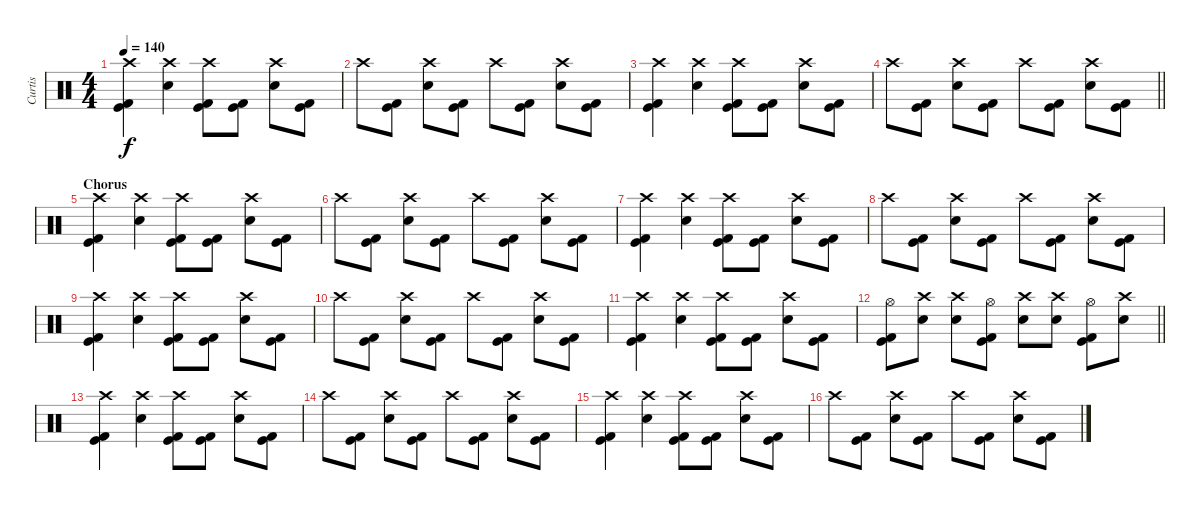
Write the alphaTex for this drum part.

\track ("Curtis" "Curtis") {instrument percussion}
\staff {score}
\articulation defaults
\ts (4 4)
\tempo 140
\clef neutral
\ks c
("Crash high (hit)" "Kick (hit) 2" "Kick (hit)").4{dy f} ("Crash high (hit)" "Electric Snare (hit)").4 ("Crash high (hit)" "Kick (hit) 2" "Kick (hit)").8 ("Kick (hit) 2" "Kick (hit)").8 ("Crash high (hit)" "Electric Snare (hit)").8 ("Kick (hit) 2" "Kick (hit)").8 |
"Crash high (hit)".8 ("Kick (hit) 2" "Kick (hit)").8 ("Crash high (hit)" "Electric Snare (hit)").8 ("Kick (hit) 2" "Kick (hit)").8 "Crash high (hit)".8 ("Kick (hit) 2" "Kick (hit)").8 ("Crash high (hit)" "Electric Snare (hit)").8 ("Kick (hit) 2" "Kick (hit)").8 |
("Crash high (hit)" "Kick (hit) 2" "Kick (hit)").4 ("Crash high (hit)" "Electric Snare (hit)").4 ("Crash high (hit)" "Kick (hit) 2" "Kick (hit)").8 ("Kick (hit) 2" "Kick (hit)").8 ("Crash high (hit)" "Electric Snare (hit)").8 ("Kick (hit) 2" "Kick (hit)").8 |
\barLineRight lightlight "Crash high (hit)".8
("Kick (hit) 2" "Kick (hit)").8 ("Crash high (hit)" "Electric Snare (hit)").8 ("Kick (hit) 2" "Kick (hit)").8 "Crash high (hit)".8 ("Kick (hit) 2" "Kick (hit)").8 ("Crash high (hit)" "Electric Snare (hit)").8 ("Kick (hit) 2" "Kick (hit)").8 |
\section ("" "Chorus")
("Crash high (hit)" "Kick (hit) 2" "Kick (hit)").4 ("Crash high (hit)" "Electric Snare (hit)").4 ("Crash high (hit)" "Kick (hit) 2" "Kick (hit)").8 ("Kick (hit) 2" "Kick (hit)").8 ("Crash high (hit)" "Electric Snare (hit)").8 ("Kick (hit) 2" "Kick (hit)").8 |
"Crash high (hit)".8 ("Kick (hit) 2" "Kick (hit)").8 ("Crash high (hit)" "Electric Snare (hit)").8 ("Kick (hit) 2" "Kick (hit)").8 "Crash high (hit)".8 ("Kick (hit) 2" "Kick (hit)").8 ("Crash high (hit)" "Electric Snare (hit)").8 ("Kick (hit) 2" "Kick (hit)").8 |
("Crash high (hit)" "Kick (hit) 2" "Kick (hit)").4 ("Crash high (hit)" "Electric Snare (hit)").4 ("Crash high (hit)" "Kick (hit) 2" "Kick (hit)").8 ("Kick (hit) 2" "Kick (hit)").8 ("Crash high (hit)" "Electric Snare (hit)").8 ("Kick (hit) 2" "Kick (hit)").8 |
"Crash high (hit)".8 ("Kick (hit) 2" "Kick (hit)").8 ("Crash high (hit)" "Electric Snare (hit)").8 ("Kick (hit) 2" "Kick (hit)").8 "Crash high (hit)".8 ("Kick (hit) 2" "Kick (hit)").8 ("Crash high (hit)" "Electric Snare (hit)").8 ("Kick (hit) 2" "Kick (hit)").8 |
("Crash high (hit)" "Kick (hit) 2" "Kick (hit)").4 ("Crash high (hit)" "Electric Snare (hit)").4 ("Crash high (hit)" "Kick (hit) 2" "Kick (hit)").8 ("Kick (hit) 2" "Kick (hit)").8 ("Crash high (hit)" "Electric Snare (hit)").8 ("Kick (hit) 2" "Kick (hit)").8 |
"Crash high (hit)".8 ("Kick (hit) 2" "Kick (hit)").8 ("Crash high (hit)" "Electric Snare (hit)").8 ("Kick (hit) 2" "Kick (hit)").8 "Crash high (hit)".8 ("Kick (hit) 2" "Kick (hit)").8 ("Crash high (hit)" "Electric Snare (hit)").8 ("Kick (hit) 2" "Kick (hit)").8 |
("Crash high (hit)" "Kick (hit) 2" "Kick (hit)").4 ("Crash high (hit)" "Electric Snare (hit)").4 ("Crash high (hit)" "Kick (hit) 2" "Kick (hit)").8 ("Kick (hit) 2" "Kick (hit)").8 ("Crash high (hit)" "Electric Snare (hit)").8 ("Kick (hit) 2" "Kick (hit)").8 |
\barLineRight lightlight
("Hi-Hat (open)" "Kick (hit) 2" "Kick (hit)").8 ("Crash high (hit)" "Electric Snare (hit)").8 ("Crash high (hit)" "Electric Snare (hit)").8 ("Hi-Hat (open)" "Kick (hit) 2" "Kick (hit)").8 ("Crash high (hit)" "Electric Snare (hit)").8 ("Crash high (hit)" "Electric Snare (hit)").8 ("Hi-Hat (open)" "Kick (hit) 2" "Kick (hit)").8 ("Crash high (hit)" "Electric Snare (hit)").8 |
("Crash high (hit)" "Kick (hit) 2" "Kick (hit)").4 ("Crash high (hit)" "Electric Snare (hit)").4 ("Crash high (hit)" "Kick (hit) 2" "Kick (hit)").8 ("Kick (hit) 2" "Kick (hit)").8 ("Crash high (hit)" "Electric Snare (hit)").8 ("Kick (hit) 2" "Kick (hit)").8 |
"Crash high (hit)".8 ("Kick (hit) 2" "Kick (hit)").8 ("Crash high (hit)" "Electric Snare (hit)").8 ("Kick (hit) 2" "Kick (hit)").8 "Crash high (hit)".8 ("Kick (hit) 2" "Kick (hit)").8 ("Crash high (hit)" "Electric Snare (hit)").8 ("Kick (hit) 2" "Kick (hit)").8 |
("Crash high (hit)" "Kick (hit) 2" "Kick (hit)").4 ("Crash high (hit)" "Electric Snare (hit)").4 ("Crash high (hit)" "Kick (hit) 2" "Kick (hit)").8 ("Kick (hit) 2" "Kick (hit)").8 ("Crash high (hit)" "Electric Snare (hit)").8 ("Kick (hit) 2" "Kick (hit)").8 |
"Crash high (hit)".8 ("Kick (hit) 2" "Kick (hit)").8 ("Crash high (hit)" "Electric Snare (hit)").8 ("Kick (hit) 2" "Kick (hit)").8 "Crash high (hit)".8 ("Kick (hit) 2" "Kick (hit)").8 ("Crash high (hit)" "Electric Snare (hit)").8 ("Kick (hit) 2" "Kick (hit)").8
